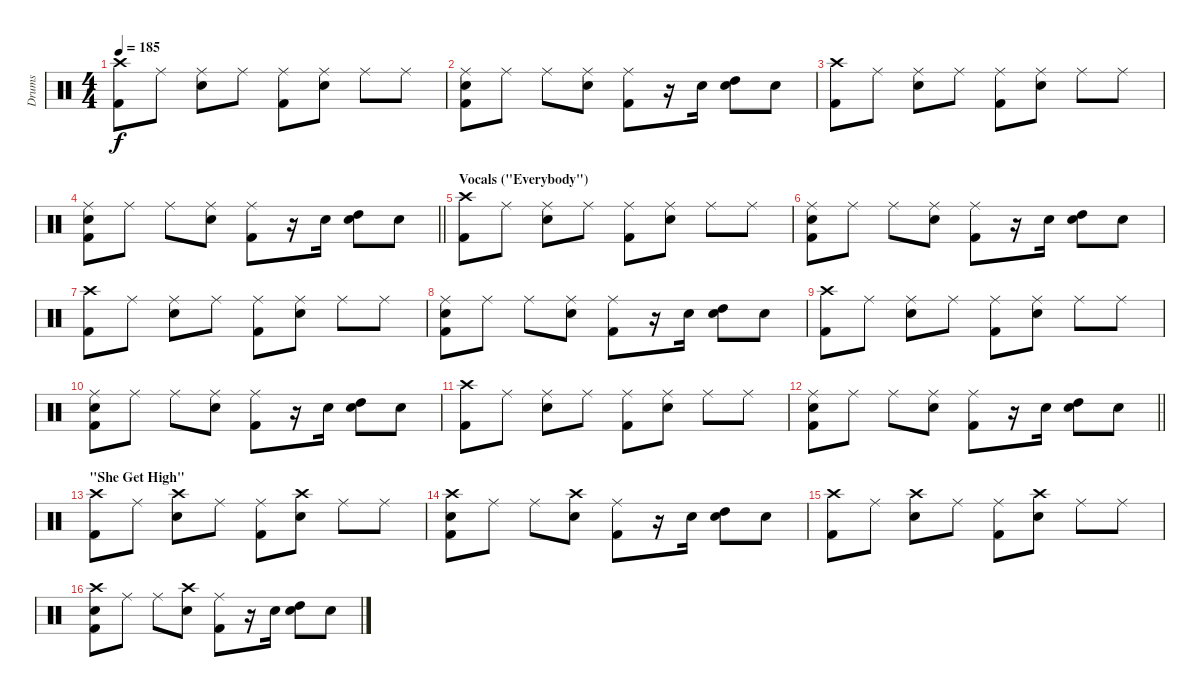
\track ("Drums" "Drums") {instrument percussion}
\staff {score}
\articulation defaults
\ts (4 4)
\tempo 185
\clef neutral
\ks c
("Crash high (hit)" "Kick (hit) 2").8{dy f} "Ride (middle)".8 ("Ride (middle)" "Snare (hit) 2").8 "Ride (middle)".8 ("Ride (middle)" "Kick (hit) 2").8 ("Ride (middle)" "Snare (hit) 2").8 "Ride (middle)".8 "Ride (middle)".8 |
("Ride (middle)" "Snare (hit) 2" "Kick (hit) 2").8 "Ride (middle)".8 "Ride (middle)".8 ("Ride (middle)" "Snare (hit) 2").8 ("Ride (middle)" "Kick (hit) 2").8 r.16 "Snare (hit) 2".16 ("High Tom (hit)" "Snare (hit) 2").8 "Snare (hit) 2".8 |
("Crash high (hit)" "Kick (hit) 2").8 "Ride (middle)".8 ("Ride (middle)" "Snare (hit) 2").8 "Ride (middle)".8 ("Ride (middle)" "Kick (hit) 2").8 ("Ride (middle)" "Snare (hit) 2").8 "Ride (middle)".8 "Ride (middle)".8 |
\barLineRight lightlight
("Ride (middle)" "Snare (hit) 2" "Kick (hit) 2").8 "Ride (middle)".8 "Ride (middle)".8 ("Ride (middle)" "Snare (hit) 2").8 ("Ride (middle)" "Kick (hit) 2").8 r.16 "Snare (hit) 2".16 ("High Tom (hit)" "Snare (hit) 2").8 "Snare (hit) 2".8 |
\section ("" "Vocals (\"Everybody\")")
("Crash high (hit)" "Kick (hit) 2").8 "Ride (middle)".8 ("Ride (middle)" "Snare (hit) 2").8 "Ride (middle)".8 ("Ride (middle)" "Kick (hit) 2").8 ("Ride (middle)" "Snare (hit) 2").8 "Ride (middle)".8 "Ride (middle)".8 |
("Ride (middle)" "Snare (hit) 2" "Kick (hit) 2").8 "Ride (middle)".8 "Ride (middle)".8 ("Ride (middle)" "Snare (hit) 2").8 ("Ride (middle)" "Kick (hit) 2").8 r.16 "Snare (hit) 2".16 ("High Tom (hit)" "Snare (hit) 2").8 "Snare (hit) 2".8 |
("Crash high (hit)" "Kick (hit) 2").8 "Ride (middle)".8 ("Ride (middle)" "Snare (hit) 2").8 "Ride (middle)".8 ("Ride (middle)" "Kick (hit) 2").8 ("Ride (middle)" "Snare (hit) 2").8 "Ride (middle)".8 "Ride (middle)".8 |
("Ride (middle)" "Snare (hit) 2" "Kick (hit) 2").8 "Ride (middle)".8 "Ride (middle)".8 ("Ride (middle)" "Snare (hit) 2").8 ("Ride (middle)" "Kick (hit) 2").8 r.16 "Snare (hit) 2".16 ("High Tom (hit)" "Snare (hit) 2").8 "Snare (hit) 2".8 |
("Crash high (hit)" "Kick (hit) 2").8 "Ride (middle)".8 ("Ride (middle)" "Snare (hit) 2").8 "Ride (middle)".8 ("Ride (middle)" "Kick (hit) 2").8 ("Ride (middle)" "Snare (hit) 2").8 "Ride (middle)".8 "Ride (middle)".8 |
("Ride (middle)" "Snare (hit) 2" "Kick (hit) 2").8 "Ride (middle)".8 "Ride (middle)".8 ("Ride (middle)" "Snare (hit) 2").8 ("Ride (middle)" "Kick (hit) 2").8 r.16 "Snare (hit) 2".16 ("High Tom (hit)" "Snare (hit) 2").8 "Snare (hit) 2".8 |
("Crash high (hit)" "Kick (hit) 2").8 "Ride (middle)".8 ("Ride (middle)" "Snare (hit) 2").8 "Ride (middle)".8 ("Ride (middle)" "Kick (hit) 2").8 ("Ride (middle)" "Snare (hit) 2").8 "Ride (middle)".8 "Ride (middle)".8 |
\barLineRight lightlight
("Ride (middle)" "Snare (hit) 2" "Kick (hit) 2").8 "Ride (middle)".8 "Ride (middle)".8 ("Ride (middle)" "Snare (hit) 2").8 ("Ride (middle)" "Kick (hit) 2").8 r.16 "Snare (hit) 2".16 ("High Tom (hit)" "Snare (hit) 2").8 "Snare (hit) 2".8 |
\section ("" "\"She Get High\"")
("Crash high (hit)" "Kick (hit) 2").8 "Ride (middle)".8 ("Crash high (hit)" "Snare (hit) 2").8 "Ride (middle)".8 ("Ride (middle)" "Kick (hit) 2").8 ("Crash high (hit)" "Snare (hit) 2").8 "Ride (middle)".8 "Ride (middle)".8 |
("Crash high (hit)" "Snare (hit) 2" "Kick (hit) 2").8 "Ride (middle)".8 "Ride (middle)".8 ("Crash high (hit)" "Snare (hit) 2").8 ("Ride (middle)" "Kick (hit) 2").8 r.16 "Snare (hit) 2".16 ("High Tom (hit)" "Snare (hit) 2").8 "Snare (hit) 2".8 |
("Crash high (hit)" "Kick (hit) 2").8 "Ride (middle)".8 ("Crash high (hit)" "Snare (hit) 2").8 "Ride (middle)".8 ("Ride (middle)" "Kick (hit) 2").8 ("Crash high (hit)" "Snare (hit) 2").8 "Ride (middle)".8 "Ride (middle)".8 |
("Crash high (hit)" "Snare (hit) 2" "Kick (hit) 2").8 "Ride (middle)".8 "Ride (middle)".8 ("Crash high (hit)" "Snare (hit) 2").8 ("Ride (middle)" "Kick (hit) 2").8 r.16 "Snare (hit) 2".16 ("High Tom (hit)" "Snare (hit) 2").8 "Snare (hit) 2".8
